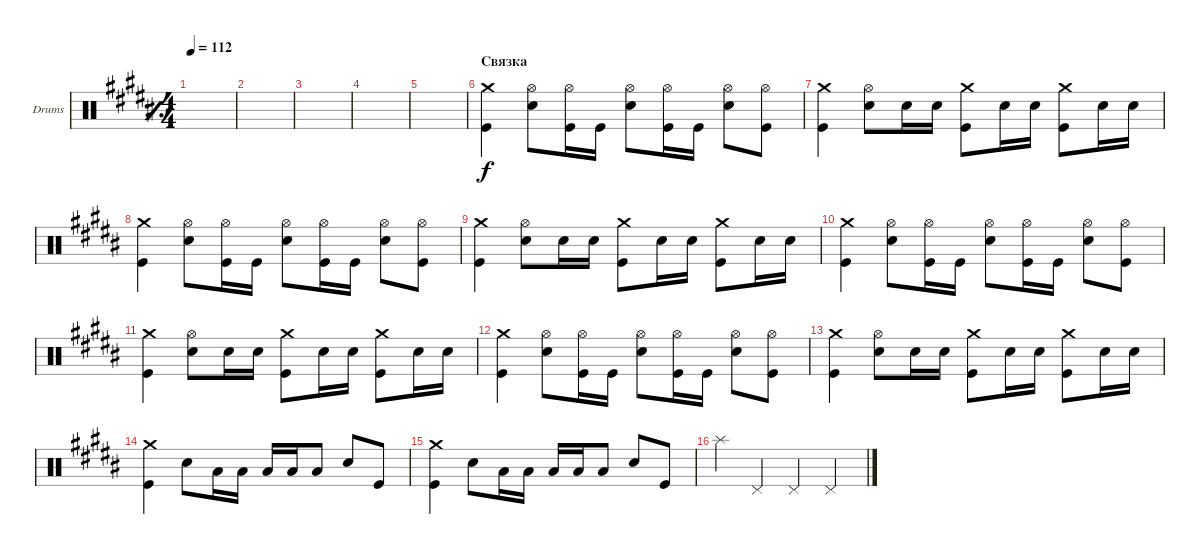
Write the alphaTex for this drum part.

\bracketExtendMode groupsimilarinstruments
\firstSystemTrackNameOrientation horizontal
\otherSystemsTrackNameOrientation horizontal
\track ("Drumkit" "Drums") {instrument percussion}
\staff {score}
\articulation defaults
\ts (4 4)
\tempo 112
\clef neutral
\simile simple
\ks g#minor
|
|
|
|
|
\section ("" "Связка")
("Crash medium (hit)" "Kick (hit)").4 ("Hi-Hat (open)" "Snare (hit) 2").8 ("Hi-Hat (open)" "Kick (hit)").16 "Kick (hit)".16 ("Hi-Hat (open)" "Snare (hit) 2").8 ("Hi-Hat (open)" "Kick (hit)").16 "Kick (hit)".16 ("Hi-Hat (open)" "Snare (hit) 2").8 ("Hi-Hat (open)" "Kick (hit)").8 |
("Crash medium (hit)" "Kick (hit)").4 ("Hi-Hat (open)" "Snare (hit) 2").8 "Snare (hit) 2".16 "Snare (hit) 2".16 ("Crash medium (hit)" "Kick (hit)").8 "Snare (hit) 2".16 "Snare (hit) 2".16 ("Crash medium (hit)" "Kick (hit)").8 "Snare (hit) 2".16 "Snare (hit) 2".16 |
("Crash medium (hit)" "Kick (hit)").4 ("Hi-Hat (open)" "Snare (hit) 2").8 ("Hi-Hat (open)" "Kick (hit)").16 "Kick (hit)".16 ("Hi-Hat (open)" "Snare (hit) 2").8 ("Hi-Hat (open)" "Kick (hit)").16 "Kick (hit)".16 ("Hi-Hat (open)" "Snare (hit) 2").8 ("Hi-Hat (open)" "Kick (hit)").8 |
("Crash medium (hit)" "Kick (hit)").4 ("Hi-Hat (open)" "Snare (hit) 2").8 "Snare (hit) 2".16 "Snare (hit) 2".16 ("Crash medium (hit)" "Kick (hit)").8 "Snare (hit) 2".16 "Snare (hit) 2".16 ("Crash medium (hit)" "Kick (hit)").8 "Snare (hit) 2".16 "Snare (hit) 2".16 |
("Crash medium (hit)" "Kick (hit)").4 ("Hi-Hat (open)" "Snare (hit) 2").8 ("Hi-Hat (open)" "Kick (hit)").16 "Kick (hit)".16 ("Hi-Hat (open)" "Snare (hit) 2").8 ("Hi-Hat (open)" "Kick (hit)").16 "Kick (hit)".16 ("Hi-Hat (open)" "Snare (hit) 2").8 ("Hi-Hat (open)" "Kick (hit)").8 |
("Crash medium (hit)" "Kick (hit)").4 ("Hi-Hat (open)" "Snare (hit) 2").8 "Snare (hit) 2".16 "Snare (hit) 2".16 ("Crash medium (hit)" "Kick (hit)").8 "Snare (hit) 2".16 "Snare (hit) 2".16 ("Crash medium (hit)" "Kick (hit)").8 "Snare (hit) 2".16 "Snare (hit) 2".16 |
("Crash medium (hit)" "Kick (hit)").4 ("Hi-Hat (open)" "Snare (hit) 2").8 ("Hi-Hat (open)" "Kick (hit)").16 "Kick (hit)".16 ("Hi-Hat (open)" "Snare (hit) 2").8 ("Hi-Hat (open)" "Kick (hit)").16 "Kick (hit)".16 ("Hi-Hat (open)" "Snare (hit) 2").8 ("Hi-Hat (open)" "Kick (hit)").8 |
("Crash medium (hit)" "Kick (hit)").4 ("Hi-Hat (open)" "Snare (hit) 2").8 "Snare (hit) 2".16 "Snare (hit) 2".16 ("Crash medium (hit)" "Kick (hit)").8 "Snare (hit) 2".16 "Snare (hit) 2".16 ("Crash medium (hit)" "Kick (hit)").8 "Snare (hit) 2".16 "Snare (hit) 2".16 |
("Crash medium (hit)" "Kick (hit)").4 "Snare (hit) 2".8 "Low Tom (hit)".16 "Low Tom (hit)".16 "Low Tom (hit)".16 "Low Tom (hit)".16 "Low Tom (hit)".8 "Snare (hit) 2".8 "Kick (hit)".8 |
("Crash medium (hit)" "Kick (hit)").4 "Snare (hit) 2".8 "Low Tom (hit)".16 "Low Tom (hit)".16 "Low Tom (hit)".16 "Low Tom (hit)".16 "Low Tom (hit)".8 "Snare (hit) 2".8 "Kick (hit)".8 |
"Splash (hit)".4 "Pedal Hi-Hat (hit)".4 "Pedal Hi-Hat (hit)".4 "Pedal Hi-Hat (hit)".4
